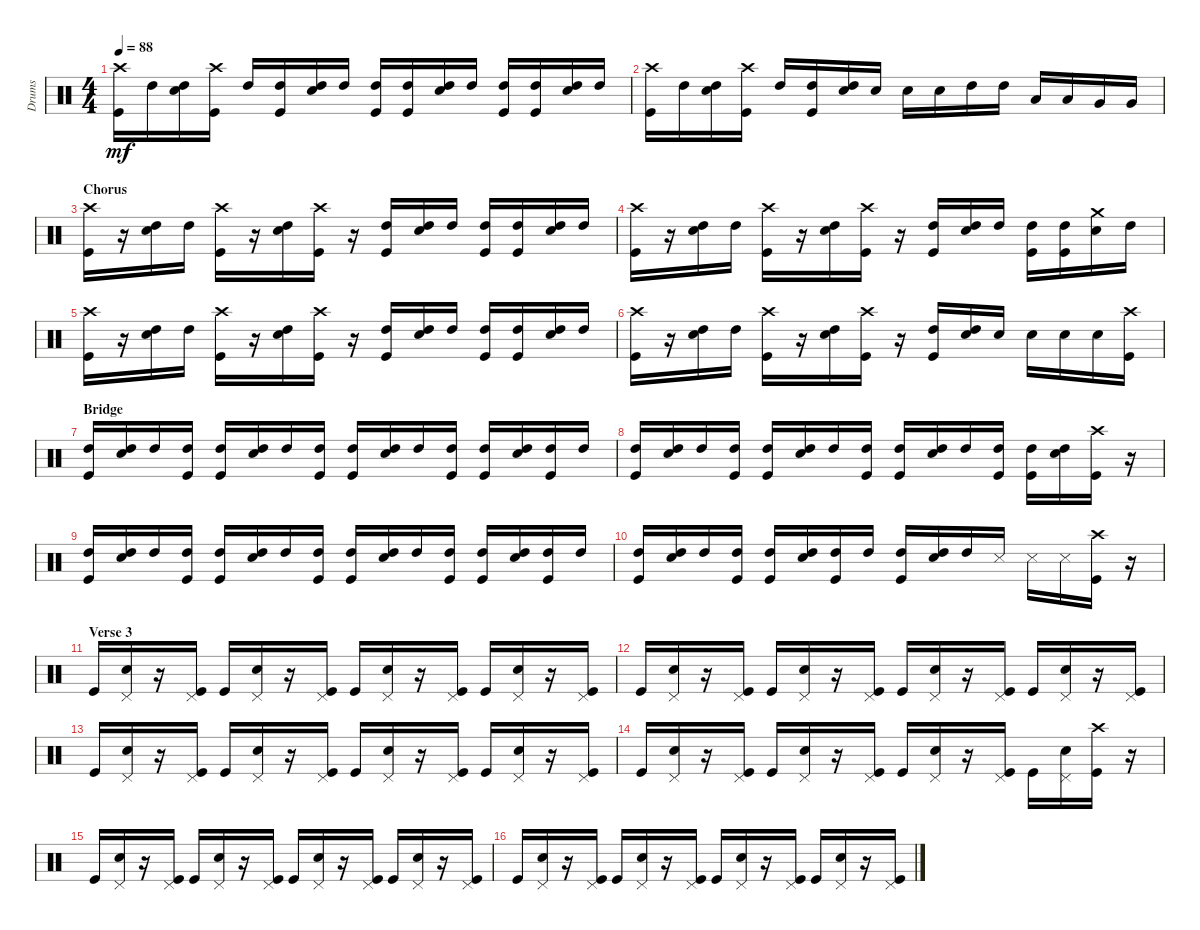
\track ("Drums" "Drums") {instrument percussion}
\staff {score}
\articulation defaults
\ts (4 4)
\tempo 88
\clef neutral
\ks c
("Kick (hit)" "Crash high (hit)").16{dy mf} "High Tom (hit)".16 ("High Tom (hit)" "Snare (hit) 2").16 ("Kick (hit)" "Crash high (hit)").16 "High Tom (hit)".16 ("High Tom (hit)" "Kick (hit)").16 ("High Tom (hit)" "Snare (hit) 2").16 "High Tom (hit)".16 ("Kick (hit)" "High Tom (hit)").16 ("High Tom (hit)" "Kick (hit)").16 ("High Tom (hit)" "Snare (hit) 2").16 "High Tom (hit)".16 ("Kick (hit)" "High Tom (hit)").16 ("High Tom (hit)" "Kick (hit)").16 ("High Tom (hit)" "Snare (hit) 2").16 "High Tom (hit)".16 |
("Kick (hit)" "Crash high (hit)").16 "High Tom (hit)".16 ("High Tom (hit)" "Snare (hit) 2").16 ("Kick (hit)" "Crash high (hit)").16 "High Tom (hit)".16 ("High Tom (hit)" "Kick (hit)").16 ("High Tom (hit)" "Snare (hit) 2").16 "Snare (hit) 2".16 "Snare (hit) 2".16 "Snare (hit) 2".16 "High Tom (hit)".16 "High Tom (hit)".16 "Low Tom (hit)".16 "Low Tom (hit)".16 "Very Low Tom (hit)".16 "Very Low Tom (hit)".16 |
\section ("" "Chorus")
("Kick (hit)" "Crash high (hit)").16 r.16 ("Snare (hit) 2" "High Tom (hit)").16 "High Tom (hit)".16 ("Kick (hit)" "Crash high (hit)").16 r.16 ("Snare (hit) 2" "High Tom (hit)").16 ("Kick (hit)" "Crash high (hit)").16 r.16 ("Kick (hit)" "High Tom (hit)").16 ("Snare (hit) 2" "High Tom (hit)").16 "High Tom (hit)".16 ("Kick (hit)" "High Tom (hit)").16 ("Kick (hit)" "High Tom (hit)").16 ("Snare (hit) 2" "High Tom (hit)").16 "High Tom (hit)".16 |
("Kick (hit)" "Crash high (hit)").16 r.16 ("Snare (hit) 2" "High Tom (hit)").16 "High Tom (hit)".16 ("Kick (hit)" "Crash high (hit)").16 r.16 ("Snare (hit) 2" "High Tom (hit)").16 ("Kick (hit)" "Crash high (hit)").16 r.16 ("Kick (hit)" "High Tom (hit)").16 ("Snare (hit) 2" "High Tom (hit)").16 "High Tom (hit)".16 ("Kick (hit)" "High Tom (hit)").16 ("Kick (hit)" "High Tom (hit)").16 ("Snare (hit) 2" "Crash medium (hit)").16 "High Tom (hit)".16 |
("Kick (hit)" "Crash high (hit)").16 r.16 ("Snare (hit) 2" "High Tom (hit)").16 "High Tom (hit)".16 ("Kick (hit)" "Crash high (hit)").16 r.16 ("Snare (hit) 2" "High Tom (hit)").16 ("Kick (hit)" "Crash high (hit)").16 r.16 ("Kick (hit)" "High Tom (hit)").16 ("Snare (hit) 2" "High Tom (hit)").16 "High Tom (hit)".16 ("Kick (hit)" "High Tom (hit)").16 ("Kick (hit)" "High Tom (hit)").16 ("Snare (hit) 2" "High Tom (hit)").16 "High Tom (hit)".16 |
("Kick (hit)" "Crash high (hit)").16 r.16 ("Snare (hit) 2" "High Tom (hit)").16 "High Tom (hit)".16 ("Kick (hit)" "Crash high (hit)").16 r.16 ("Snare (hit) 2" "High Tom (hit)").16 ("Kick (hit)" "Crash high (hit)").16 r.16 ("Kick (hit)" "High Tom (hit)").16 ("Snare (hit) 2" "High Tom (hit)").16 "Snare (hit) 2".16 "Snare (hit) 2".16 "Snare (hit) 2".16 "Snare (hit) 2".16 ("Kick (hit)" "Crash high (hit)").16 |
\section ("" "Bridge")
("Kick (hit)" "High Tom (hit)").16 ("Snare (hit) 2" "High Tom (hit)").16 "High Tom (hit)".16 ("Kick (hit)" "High Tom (hit)").16 ("Kick (hit)" "High Tom (hit)").16 ("High Tom (hit)" "Snare (hit) 2").16 "High Tom (hit)".16 ("High Tom (hit)" "Kick (hit)").16 ("High Tom (hit)" "Kick (hit)").16 ("High Tom (hit)" "Snare (hit) 2").16 "High Tom (hit)".16 ("Kick (hit)" "High Tom (hit)").16 ("Kick (hit)" "High Tom (hit)").16 ("High Tom (hit)" "Snare (hit) 2").16 ("High Tom (hit)" "Kick (hit)").16 "High Tom (hit)".16 |
("Kick (hit)" "High Tom (hit)").16 ("Snare (hit) 2" "High Tom (hit)").16 "High Tom (hit)".16 ("Kick (hit)" "High Tom (hit)").16 ("Kick (hit)" "High Tom (hit)").16 ("High Tom (hit)" "Snare (hit) 2").16 "High Tom (hit)".16 ("High Tom (hit)" "Kick (hit)").16 ("High Tom (hit)" "Kick (hit)").16 ("High Tom (hit)" "Snare (hit) 2").16 "High Tom (hit)".16 ("Kick (hit)" "High Tom (hit)").16 ("Kick (hit)" "High Tom (hit)").16 ("High Tom (hit)" "Snare (hit) 2").16 ("Kick (hit)" "Crash high (hit)").16 r.16 |
("Kick (hit)" "High Tom (hit)").16 ("Snare (hit) 2" "High Tom (hit)").16 "High Tom (hit)".16 ("Kick (hit)" "High Tom (hit)").16 ("Kick (hit)" "High Tom (hit)").16 ("High Tom (hit)" "Snare (hit) 2").16 "High Tom (hit)".16 ("High Tom (hit)" "Kick (hit)").16 ("High Tom (hit)" "Kick (hit)").16 ("High Tom (hit)" "Snare (hit) 2").16 "High Tom (hit)".16 ("Kick (hit)" "High Tom (hit)").16 ("Kick (hit)" "High Tom (hit)").16 ("High Tom (hit)" "Snare (hit) 2").16 ("Kick (hit)" "High Tom (hit)").16 "High Tom (hit)".16 |
("Kick (hit)" "High Tom (hit)").16 ("Snare (hit) 2" "High Tom (hit)").16 "High Tom (hit)".16 ("Kick (hit)" "High Tom (hit)").16 ("Kick (hit)" "High Tom (hit)").16 ("High Tom (hit)" "Snare (hit) 2").16 ("Kick (hit)" "High Tom (hit)").16 "High Tom (hit)".16 ("High Tom (hit)" "Kick (hit)").16 ("High Tom (hit)" "Snare (hit) 2").16 "High Tom (hit)".16 "Snare (side stick) 3".16 "Snare (side stick) 3".16 "Snare (side stick) 3".16 ("Kick (hit)" "Crash high (hit)").16 r.16 |
\section ("" "Verse 3")
"Kick (hit)".16 ("Snare (hit) 2" "Pedal Hi-Hat (hit)").16 r.16 ("Kick (hit)" "Pedal Hi-Hat (hit)").16 "Kick (hit)".16 ("Snare (hit) 2" "Pedal Hi-Hat (hit)").16 r.16 ("Pedal Hi-Hat (hit)" "Kick (hit)").16 "Kick (hit)".16 ("Snare (hit) 2" "Pedal Hi-Hat (hit)").16 r.16 ("Kick (hit)" "Pedal Hi-Hat (hit)").16 "Kick (hit)".16 ("Snare (hit) 2" "Pedal Hi-Hat (hit)").16 r.16 ("Kick (hit)" "Pedal Hi-Hat (hit)").16 |
"Kick (hit)".16 ("Snare (hit) 2" "Pedal Hi-Hat (hit)").16 r.16 ("Kick (hit)" "Pedal Hi-Hat (hit)").16 "Kick (hit)".16 ("Snare (hit) 2" "Pedal Hi-Hat (hit)").16 r.16 ("Pedal Hi-Hat (hit)" "Kick (hit)").16 "Kick (hit)".16 ("Snare (hit) 2" "Pedal Hi-Hat (hit)").16 r.16 ("Kick (hit)" "Pedal Hi-Hat (hit)").16 "Kick (hit)".16 ("Snare (hit) 2" "Pedal Hi-Hat (hit)").16 r.16 ("Kick (hit)" "Pedal Hi-Hat (hit)").16 |
"Kick (hit)".16 ("Snare (hit) 2" "Pedal Hi-Hat (hit)").16 r.16 ("Kick (hit)" "Pedal Hi-Hat (hit)").16 "Kick (hit)".16 ("Snare (hit) 2" "Pedal Hi-Hat (hit)").16 r.16 ("Pedal Hi-Hat (hit)" "Kick (hit)").16 "Kick (hit)".16 ("Snare (hit) 2" "Pedal Hi-Hat (hit)").16 r.16 ("Kick (hit)" "Pedal Hi-Hat (hit)").16 "Kick (hit)".16 ("Snare (hit) 2" "Pedal Hi-Hat (hit)").16 r.16 ("Kick (hit)" "Pedal Hi-Hat (hit)").16 |
"Kick (hit)".16 ("Snare (hit) 2" "Pedal Hi-Hat (hit)").16 r.16 ("Kick (hit)" "Pedal Hi-Hat (hit)").16 "Kick (hit)".16 ("Snare (hit) 2" "Pedal Hi-Hat (hit)").16 r.16 ("Pedal Hi-Hat (hit)" "Kick (hit)").16 "Kick (hit)".16 ("Snare (hit) 2" "Pedal Hi-Hat (hit)").16 r.16 ("Kick (hit)" "Pedal Hi-Hat (hit)").16 "Kick (hit)".16 ("Snare (hit) 2" "Pedal Hi-Hat (hit)").16 ("Kick (hit)" "Crash high (hit)").16 r.16 |
"Kick (hit)".16 ("Snare (hit) 2" "Pedal Hi-Hat (hit)").16 r.16 ("Kick (hit)" "Pedal Hi-Hat (hit)").16 "Kick (hit)".16 ("Snare (hit) 2" "Pedal Hi-Hat (hit)").16 r.16 ("Pedal Hi-Hat (hit)" "Kick (hit)").16 "Kick (hit)".16 ("Snare (hit) 2" "Pedal Hi-Hat (hit)").16 r.16 ("Kick (hit)" "Pedal Hi-Hat (hit)").16 "Kick (hit)".16 ("Snare (hit) 2" "Pedal Hi-Hat (hit)").16 r.16 ("Kick (hit)" "Pedal Hi-Hat (hit)").16 |
"Kick (hit)".16 ("Snare (hit) 2" "Pedal Hi-Hat (hit)").16 r.16 ("Kick (hit)" "Pedal Hi-Hat (hit)").16 "Kick (hit)".16 ("Snare (hit) 2" "Pedal Hi-Hat (hit)").16 r.16 ("Pedal Hi-Hat (hit)" "Kick (hit)").16 "Kick (hit)".16 ("Snare (hit) 2" "Pedal Hi-Hat (hit)").16 r.16 ("Kick (hit)" "Pedal Hi-Hat (hit)").16 "Kick (hit)".16 ("Snare (hit) 2" "Pedal Hi-Hat (hit)").16 r.16 ("Kick (hit)" "Pedal Hi-Hat (hit)").16
